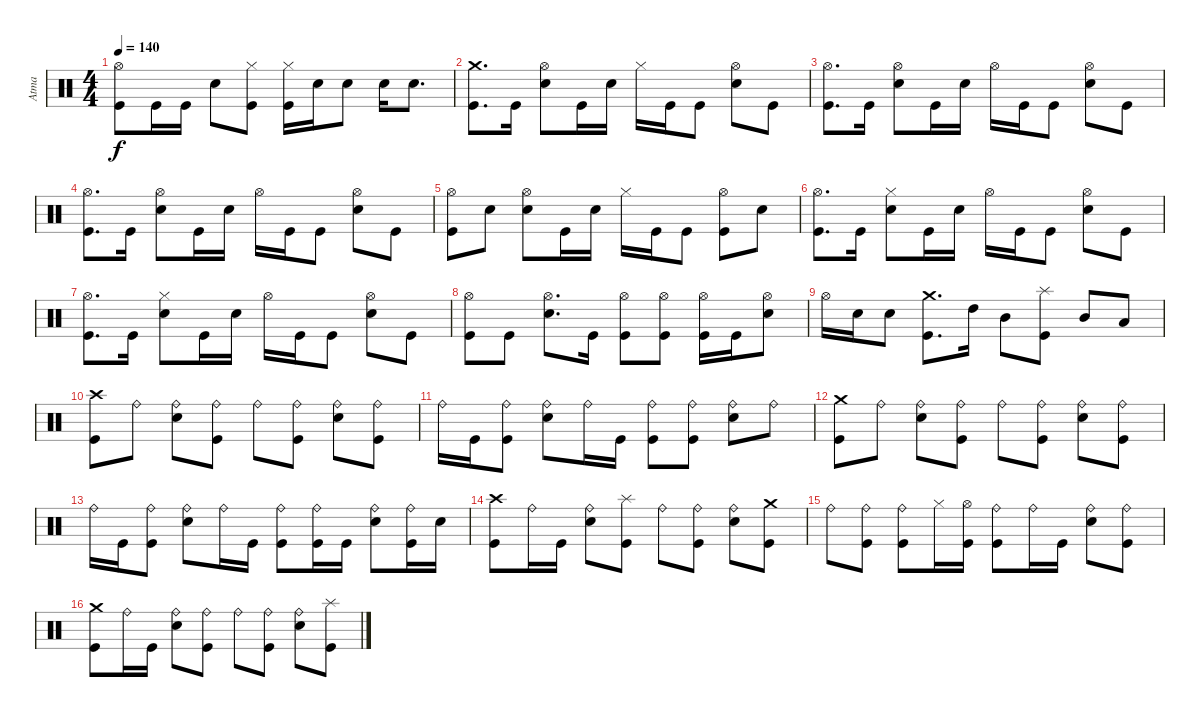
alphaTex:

\track ("Atma" "Atma") {instrument percussion}
\staff {score}
\articulation defaults
\ts (4 4)
\tempo 140
\clef neutral
\ks c
("Kick (hit)" "Hi-Hat (open)").8{dy f} "Kick (hit)".16 "Kick (hit)".16 "Snare (hit) 2".8 ("Kick (hit)" "Hi-Hat (closed)").8 ("Kick (hit)" "Hi-Hat (closed)").16 "Snare (hit) 2".16 "Snare (hit) 2".8 "Snare (hit) 2".16 "Snare (hit) 2".8{d} |
("Kick (hit)" "Crash medium (hit)").8{d} "Kick (hit)".16 ("Snare (hit) 2" "Hi-Hat (open)").8 "Kick (hit)".16 "Snare (hit) 2".16 "Hi-Hat (closed)".16 "Kick (hit)".16 "Kick (hit)".8 ("Snare (hit) 2" "Hi-Hat (open)").8 "Kick (hit)".8 |
("Kick (hit)" "Hi-Hat (open)").8{d} "Kick (hit)".16 ("Snare (hit) 2" "Hi-Hat (open)").8 "Kick (hit)".16 "Snare (hit) 2".16 "Hi-Hat (open)".16 "Kick (hit)".16 "Kick (hit)".8 ("Snare (hit) 2" "Hi-Hat (open)").8 "Kick (hit)".8 |
("Kick (hit)" "Hi-Hat (open)").8{d} "Kick (hit)".16 ("Snare (hit) 2" "Hi-Hat (open)").8 "Kick (hit)".16 "Snare (hit) 2".16 "Hi-Hat (open)".16 "Kick (hit)".16 "Kick (hit)".8 ("Snare (hit) 2" "Hi-Hat (open)").8 "Kick (hit)".8 |
("Kick (hit)" "Hi-Hat (open)").8 "Snare (hit) 2".8 ("Snare (hit) 2" "Hi-Hat (open)").8 "Kick (hit)".16 "Snare (hit) 2".16 "Hi-Hat (closed)".16 "Kick (hit)".16 "Kick (hit)".8 ("Kick (hit)" "Hi-Hat (open)").8 "Snare (hit) 2".8 |
("Kick (hit)" "Hi-Hat (open)").8{d} "Kick (hit)".16 ("Snare (hit) 2" "Hi-Hat (closed)").8 "Kick (hit)".16 "Snare (hit) 2".16 "Hi-Hat (open)".16 "Kick (hit)".16 "Kick (hit)".8 ("Snare (hit) 2" "Hi-Hat (open)").8 "Kick (hit)".8 |
("Kick (hit)" "Hi-Hat (open)").8{d} "Kick (hit)".16 ("Snare (hit) 2" "Hi-Hat (closed)").8 "Kick (hit)".16 "Snare (hit) 2".16 "Hi-Hat (open)".16 "Kick (hit)".16 "Kick (hit)".8 ("Snare (hit) 2" "Hi-Hat (open)").8 "Kick (hit)".8 |
("Kick (hit)" "Hi-Hat (open)").8 "Kick (hit)".8 ("Snare (hit) 2" "Hi-Hat (open)").8{d} "Kick (hit)".16 ("Kick (hit)" "Hi-Hat (open)").8 ("Kick (hit)" "Hi-Hat (open)").8 ("Kick (hit)" "Hi-Hat (open)").16 "Kick (hit)".16 ("Snare (hit) 2" "Hi-Hat (open)").8 |
"Hi-Hat (open)".16 "Snare (hit) 2".16 "Snare (hit) 2".8 ("Kick (hit)" "Crash medium (hit)").8{d} "High Tom (hit)".16 "Mid Tom (hit)".8 ("Kick (hit)" "Splash (hit)").8 "Mid Tom (hit)".8 "Low Tom (hit)".8 |
("Kick (hit)" "Crash high (hit)").8 "Ride (bell)".8 ("Snare (hit) 2" "Ride (bell)").8 ("Kick (hit)" "Ride (bell)").8 "Ride (bell)".8 ("Kick (hit)" "Ride (bell)").8 ("Snare (hit) 2" "Ride (bell)").8 ("Kick (hit)" "Ride (bell)").8 |
"Ride (bell)".16 "Kick (hit)".16 ("Kick (hit)" "Ride (bell)").8 ("Snare (hit) 2" "Ride (bell)").8 "Ride (bell)".16 "Kick (hit)".16 ("Kick (hit)" "Ride (bell)").8 ("Kick (hit)" "Ride (bell)").8 ("Snare (hit) 2" "Ride (bell)").8 "Ride (bell)".8 |
("Kick (hit)" "Crash medium (hit)").8 "Ride (bell)".8 ("Snare (hit) 2" "Ride (bell)").8 ("Kick (hit)" "Ride (bell)").8 "Ride (bell)".8 ("Kick (hit)" "Ride (bell)").8 ("Snare (hit) 2" "Ride (bell)").8 ("Kick (hit)" "Ride (bell)").8 |
"Ride (bell)".16 "Kick (hit)".16 ("Kick (hit)" "Ride (bell)").8 ("Snare (hit) 2" "Ride (bell)").8 "Ride (bell)".16 "Kick (hit)".16 ("Kick (hit)" "Ride (bell)").8 ("Kick (hit)" "Ride (bell)").16 "Kick (hit)".16 ("Snare (hit) 2" "Ride (bell)").8 ("Kick (hit)" "Ride (bell)").16 "Snare (hit) 2".16 |
("Kick (hit)" "Crash high (hit)").8 "Ride (bell)".16 "Kick (hit)".16 ("Snare (hit) 2" "Ride (bell)").8 ("Kick (hit)" "Splash (hit)").8 "Ride (bell)".8 ("Kick (hit)" "Ride (bell)").8 ("Snare (hit) 2" "Ride (bell)").8 ("Kick (hit)" "Crash medium (hit)").8 |
"Ride (bell)".8 ("Kick (hit)" "Ride (bell)").8 ("Kick (hit)" "Ride (bell)").8 "Hi-Hat (closed)".16 ("Kick (hit)" "Hi-Hat (open)").16 ("Kick (hit)" "Ride (bell)").8 "Ride (bell)".16 "Kick (hit)".16 ("Snare (hit) 2" "Ride (bell)").8 ("Kick (hit)" "Ride (bell)").8 |
("Kick (hit)" "Crash medium (hit)").8 "Ride (bell)".16 "Kick (hit)".16 ("Snare (hit) 2" "Ride (bell)").8 ("Kick (hit)" "Ride (bell)").8 "Ride (bell)".8 ("Kick (hit)" "Ride (bell)").8 ("Snare (hit) 2" "Ride (bell)").8 ("Kick (hit)" "Splash (hit)").8
